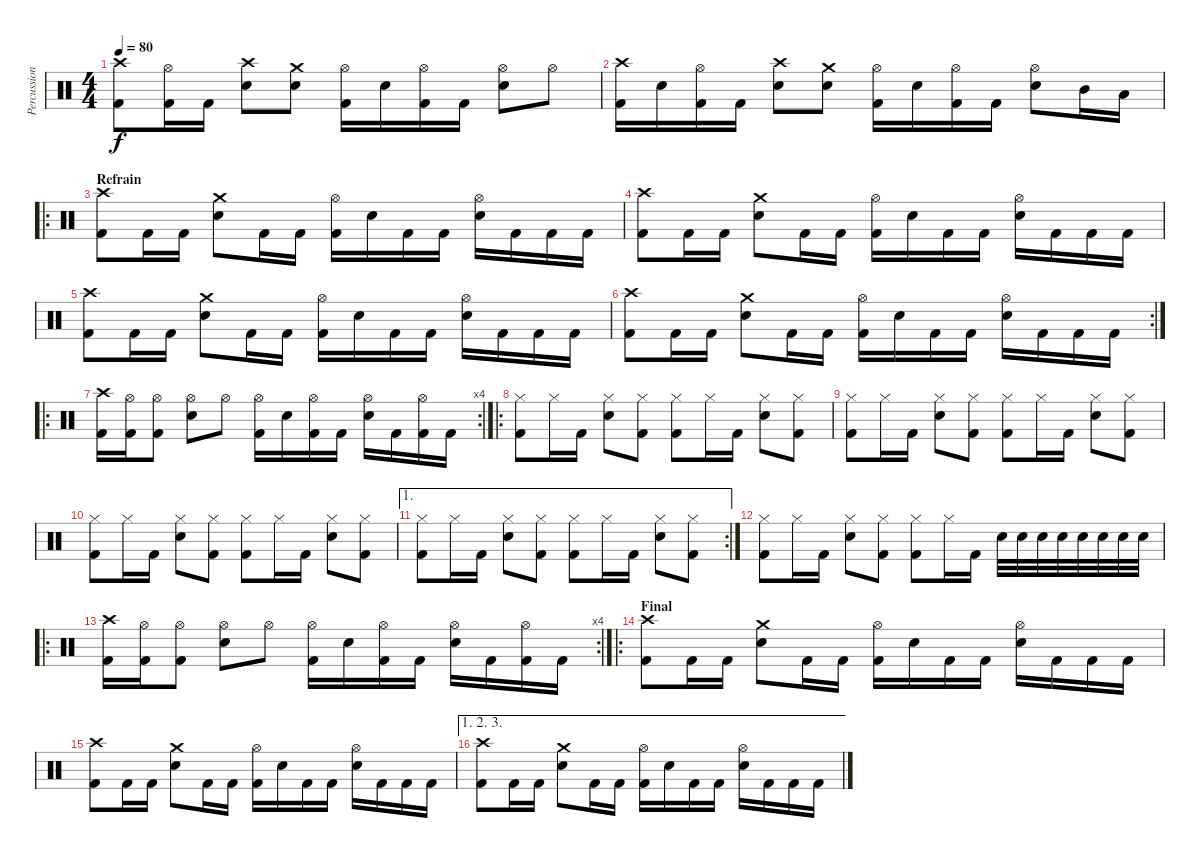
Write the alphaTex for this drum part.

\track ("Percussions" "Percussion") {instrument percussion}
\staff {score}
\articulation defaults
\ts (4 4)
\tempo 80
\clef neutral
\ks c
("Crash high (hit)" "Kick (hit) 2").8{dy f} ("Hi-Hat (open)" "Kick (hit) 2").16 "Kick (hit) 2".16 ("Crash high (hit)" "Electric Snare (hit)").8 ("Crash medium (hit)" "Electric Snare (hit)").8 ("Hi-Hat (open)" "Kick (hit) 2").16 "Electric Snare (hit)".16 ("Hi-Hat (open)" "Kick (hit) 2").16 "Kick (hit) 2".16 ("Hi-Hat (open)" "Electric Snare (hit)").8 "Hi-Hat (open)".8 |
("Crash high (hit)" "Kick (hit) 2").16 "Electric Snare (hit)".16 ("Hi-Hat (open)" "Kick (hit) 2").16 "Kick (hit) 2".16 ("Crash high (hit)" "Electric Snare (hit)").8 ("Crash medium (hit)" "Electric Snare (hit)").8 ("Hi-Hat (open)" "Kick (hit) 2").16 "Electric Snare (hit)".16 ("Hi-Hat (open)" "Kick (hit) 2").16 "Kick (hit) 2".16 ("Hi-Hat (open)" "Electric Snare (hit)").8 "Mid Tom (hit)".16 "Low Tom (hit)".16 |
\ro
\section ("" "Refrain")
("Crash high (hit)" "Kick (hit) 2").8 "Kick (hit) 2".16 "Kick (hit) 2".16 ("Crash medium (hit)" "Electric Snare (hit)").8 "Kick (hit) 2".16 "Kick (hit) 2".16 ("Hi-Hat (open)" "Kick (hit) 2").16 "Electric Snare (hit)".16 "Kick (hit) 2".16 "Kick (hit) 2".16 ("Hi-Hat (open)" "Electric Snare (hit)").16 "Kick (hit) 2".16 "Kick (hit) 2".16 "Kick (hit) 2".16 |
("Crash high (hit)" "Kick (hit) 2").8 "Kick (hit) 2".16 "Kick (hit) 2".16 ("Crash medium (hit)" "Electric Snare (hit)").8 "Kick (hit) 2".16 "Kick (hit) 2".16 ("Hi-Hat (open)" "Kick (hit) 2").16 "Electric Snare (hit)".16 "Kick (hit) 2".16 "Kick (hit) 2".16 ("Hi-Hat (open)" "Electric Snare (hit)").16 "Kick (hit) 2".16 "Kick (hit) 2".16 "Kick (hit) 2".16 |
("Crash high (hit)" "Kick (hit) 2").8 "Kick (hit) 2".16 "Kick (hit) 2".16 ("Crash medium (hit)" "Electric Snare (hit)").8 "Kick (hit) 2".16 "Kick (hit) 2".16 ("Hi-Hat (open)" "Kick (hit) 2").16 "Electric Snare (hit)".16 "Kick (hit) 2".16 "Kick (hit) 2".16 ("Hi-Hat (open)" "Electric Snare (hit)").16 "Kick (hit) 2".16 "Kick (hit) 2".16 "Kick (hit) 2".16 |
\rc 2
("Crash high (hit)" "Kick (hit) 2").8 "Kick (hit) 2".16 "Kick (hit) 2".16 ("Crash medium (hit)" "Electric Snare (hit)").8 "Kick (hit) 2".16 "Kick (hit) 2".16 ("Hi-Hat (open)" "Kick (hit) 2").16 "Electric Snare (hit)".16 "Kick (hit) 2".16 "Kick (hit) 2".16 ("Hi-Hat (open)" "Electric Snare (hit)").16 "Kick (hit) 2".16 "Kick (hit) 2".16 "Kick (hit) 2".16 |
\ro
\rc 4
("Crash high (hit)" "Kick (hit) 2").16 ("Hi-Hat (open)" "Kick (hit) 2").16 ("Hi-Hat (open)" "Kick (hit) 2").8 ("Hi-Hat (open)" "Electric Snare (hit)").8 "Hi-Hat (open)".8 ("Hi-Hat (open)" "Kick (hit) 2").16 "Electric Snare (hit)".16 ("Hi-Hat (open)" "Kick (hit) 2").16 "Kick (hit) 2".16 ("Hi-Hat (open)" "Electric Snare (hit)").16 "Kick (hit) 2".16 ("Hi-Hat (open)" "Kick (hit) 2").16 "Kick (hit) 2".16 |
\ro
("Hi-Hat (closed)" "Kick (hit) 2").8{volume 10} "Hi-Hat (closed)".16 "Kick (hit) 2".16 ("Hi-Hat (closed)" "Electric Snare (hit)").8 ("Hi-Hat (closed)" "Kick (hit) 2").8 ("Hi-Hat (closed)" "Kick (hit) 2").8 "Hi-Hat (closed)".16 "Kick (hit) 2".16 ("Hi-Hat (closed)" "Electric Snare (hit)").8 ("Hi-Hat (closed)" "Kick (hit) 2").8 |
("Hi-Hat (closed)" "Kick (hit) 2").8 "Hi-Hat (closed)".16 "Kick (hit) 2".16 ("Hi-Hat (closed)" "Electric Snare (hit)").8 ("Hi-Hat (closed)" "Kick (hit) 2").8 ("Hi-Hat (closed)" "Kick (hit) 2").8 "Hi-Hat (closed)".16 "Kick (hit) 2".16 ("Hi-Hat (closed)" "Electric Snare (hit)").8 ("Hi-Hat (closed)" "Kick (hit) 2").8 |
("Hi-Hat (closed)" "Kick (hit) 2").8 "Hi-Hat (closed)".16 "Kick (hit) 2".16 ("Hi-Hat (closed)" "Electric Snare (hit)").8 ("Hi-Hat (closed)" "Kick (hit) 2").8 ("Hi-Hat (closed)" "Kick (hit) 2").8 "Hi-Hat (closed)".16 "Kick (hit) 2".16 ("Hi-Hat (closed)" "Electric Snare (hit)").8 ("Hi-Hat (closed)" "Kick (hit) 2").8 |
\ae 1
\rc 2
("Hi-Hat (closed)" "Kick (hit) 2").8 "Hi-Hat (closed)".16 "Kick (hit) 2".16 ("Hi-Hat (closed)" "Electric Snare (hit)").8 ("Hi-Hat (closed)" "Kick (hit) 2").8 ("Hi-Hat (closed)" "Kick (hit) 2").8 "Hi-Hat (closed)".16 "Kick (hit) 2".16 ("Hi-Hat (closed)" "Electric Snare (hit)").8 ("Hi-Hat (closed)" "Kick (hit) 2").8 |
("Hi-Hat (closed)" "Kick (hit) 2").8 "Hi-Hat (closed)".16 "Kick (hit) 2".16 ("Hi-Hat (closed)" "Electric Snare (hit)").8 ("Hi-Hat (closed)" "Kick (hit) 2").8 ("Hi-Hat (closed)" "Kick (hit) 2").8 "Hi-Hat (closed)".16 "Kick (hit) 2".16 "Electric Snare (hit)".32 "Electric Snare (hit)".32 "Electric Snare (hit)".32 "Electric Snare (hit)".32 "Electric Snare (hit)".32 "Electric Snare (hit)".32 "Electric Snare (hit)".32 "Electric Snare (hit)".32 |
\ro
\rc 4
("Crash high (hit)" "Kick (hit) 2").16 ("Hi-Hat (open)" "Kick (hit) 2").16 ("Hi-Hat (open)" "Kick (hit) 2").8 ("Hi-Hat (open)" "Electric Snare (hit)").8 "Hi-Hat (open)".8 ("Hi-Hat (open)" "Kick (hit) 2").16 "Electric Snare (hit)".16 ("Hi-Hat (open)" "Kick (hit) 2").16 "Kick (hit) 2".16 ("Hi-Hat (open)" "Electric Snare (hit)").16 "Kick (hit) 2".16 ("Hi-Hat (open)" "Kick (hit) 2").16 "Kick (hit) 2".16 |
\ro
\section ("" "Final")
("Crash high (hit)" "Kick (hit) 2").8 "Kick (hit) 2".16 "Kick (hit) 2".16 ("Crash medium (hit)" "Electric Snare (hit)").8 "Kick (hit) 2".16 "Kick (hit) 2".16 ("Hi-Hat (open)" "Kick (hit) 2").16 "Electric Snare (hit)".16 "Kick (hit) 2".16 "Kick (hit) 2".16 ("Hi-Hat (open)" "Electric Snare (hit)").16 "Kick (hit) 2".16 "Kick (hit) 2".16 "Kick (hit) 2".16 |
("Crash high (hit)" "Kick (hit) 2").8 "Kick (hit) 2".16 "Kick (hit) 2".16 ("Crash medium (hit)" "Electric Snare (hit)").8 "Kick (hit) 2".16 "Kick (hit) 2".16 ("Hi-Hat (open)" "Kick (hit) 2").16 "Electric Snare (hit)".16 "Kick (hit) 2".16 "Kick (hit) 2".16 ("Hi-Hat (open)" "Electric Snare (hit)").16 "Kick (hit) 2".16 "Kick (hit) 2".16 "Kick (hit) 2".16 |
\ae (1 2 3)
("Crash high (hit)" "Kick (hit) 2").8 "Kick (hit) 2".16 "Kick (hit) 2".16 ("Crash medium (hit)" "Electric Snare (hit)").8 "Kick (hit) 2".16 "Kick (hit) 2".16 ("Hi-Hat (open)" "Kick (hit) 2").16 "Electric Snare (hit)".16 "Kick (hit) 2".16 "Kick (hit) 2".16 ("Hi-Hat (open)" "Electric Snare (hit)").16 "Kick (hit) 2".16 "Kick (hit) 2".16 "Kick (hit) 2".16
